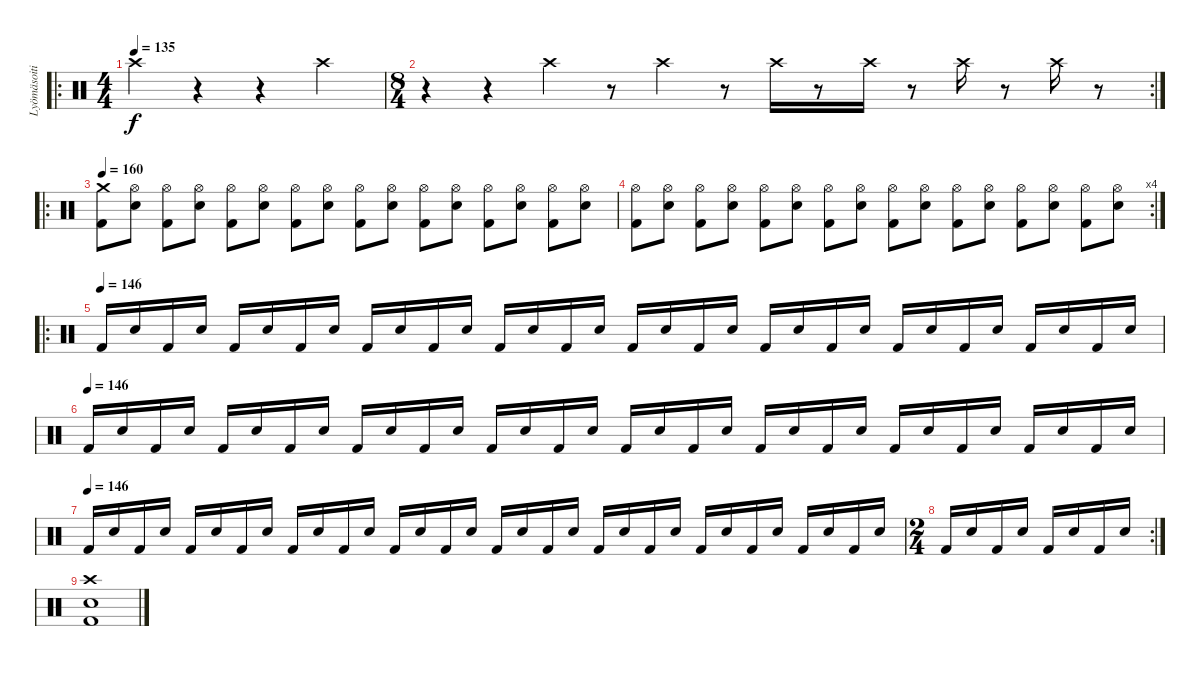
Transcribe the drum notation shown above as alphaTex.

\track ("Lyömäsoitin" "Lyömäsoiti") {instrument percussion}
\staff {score}
\articulation defaults
\ro
\ts (4 4)
\tempo 135
\clef neutral
\ks c "Crash high (hit)".4{dy f}
r.4 r.4 "Crash high (hit)".4 |
\rc 2
\ts (8 4)
r.4 r.4 "Crash high (hit)".4 r.8 "Crash high (hit)".4 r.8 "Crash high (hit)".16 r.8 "Crash high (hit)".16 r.8 "Crash high (hit)".16 r.8 "Crash high (hit)".16 r.8 |
\ro
\tempo 160
("Crash medium (hit)" "Kick (hit) 2").8 ("Hi-Hat (open)" "Snare (hit) 2").8 ("Hi-Hat (open)" "Kick (hit) 2").8 ("Hi-Hat (open)" "Snare (hit) 2").8 ("Hi-Hat (open)" "Kick (hit) 2").8 ("Hi-Hat (open)" "Snare (hit) 2").8 ("Hi-Hat (open)" "Kick (hit) 2").8 ("Hi-Hat (open)" "Snare (hit) 2").8 ("Hi-Hat (open)" "Kick (hit) 2").8 ("Hi-Hat (open)" "Snare (hit) 2").8 ("Hi-Hat (open)" "Kick (hit) 2").8 ("Hi-Hat (open)" "Snare (hit) 2").8 ("Hi-Hat (open)" "Kick (hit) 2").8 ("Hi-Hat (open)" "Snare (hit) 2").8 ("Hi-Hat (open)" "Kick (hit) 2").8 ("Hi-Hat (open)" "Snare (hit) 2").8 |
\rc 4
("Hi-Hat (open)" "Kick (hit) 2").8 ("Hi-Hat (open)" "Snare (hit) 2").8 ("Hi-Hat (open)" "Kick (hit) 2").8 ("Hi-Hat (open)" "Snare (hit) 2").8 ("Hi-Hat (open)" "Kick (hit) 2").8 ("Hi-Hat (open)" "Snare (hit) 2").8 ("Hi-Hat (open)" "Kick (hit) 2").8 ("Hi-Hat (open)" "Snare (hit) 2").8 ("Hi-Hat (open)" "Kick (hit) 2").8 ("Hi-Hat (open)" "Snare (hit) 2").8 ("Hi-Hat (open)" "Kick (hit) 2").8 ("Hi-Hat (open)" "Snare (hit) 2").8 ("Hi-Hat (open)" "Kick (hit) 2").8 ("Hi-Hat (open)" "Snare (hit) 2").8 ("Hi-Hat (open)" "Kick (hit) 2").8 ("Hi-Hat (open)" "Snare (hit) 2").8 |
\ro
\tempo (146)
"Kick (hit) 2".16 "Snare (hit) 2".16 "Kick (hit) 2".16 "Snare (hit) 2".16 "Kick (hit) 2".16 "Snare (hit) 2".16 "Kick (hit) 2".16 "Snare (hit) 2".16 "Kick (hit) 2".16 "Snare (hit) 2".16 "Kick (hit) 2".16 "Snare (hit) 2".16 "Kick (hit) 2".16 "Snare (hit) 2".16 "Kick (hit) 2".16 "Snare (hit) 2".16 "Kick (hit) 2".16 "Snare (hit) 2".16 "Kick (hit) 2".16 "Snare (hit) 2".16 "Kick (hit) 2".16 "Snare (hit) 2".16 "Kick (hit) 2".16 "Snare (hit) 2".16 "Kick (hit) 2".16 "Snare (hit) 2".16 "Kick (hit) 2".16 "Snare (hit) 2".16 "Kick (hit) 2".16 "Snare (hit) 2".16 "Kick (hit) 2".16 "Snare (hit) 2".16 |
\tempo (146)
"Kick (hit) 2".16 "Snare (hit) 2".16 "Kick (hit) 2".16 "Snare (hit) 2".16 "Kick (hit) 2".16 "Snare (hit) 2".16 "Kick (hit) 2".16 "Snare (hit) 2".16 "Kick (hit) 2".16 "Snare (hit) 2".16 "Kick (hit) 2".16 "Snare (hit) 2".16 "Kick (hit) 2".16 "Snare (hit) 2".16 "Kick (hit) 2".16 "Snare (hit) 2".16 "Kick (hit) 2".16 "Snare (hit) 2".16 "Kick (hit) 2".16 "Snare (hit) 2".16 "Kick (hit) 2".16 "Snare (hit) 2".16 "Kick (hit) 2".16 "Snare (hit) 2".16 "Kick (hit) 2".16 "Snare (hit) 2".16 "Kick (hit) 2".16 "Snare (hit) 2".16 "Kick (hit) 2".16 "Snare (hit) 2".16 "Kick (hit) 2".16 "Snare (hit) 2".16 |
\tempo (146)
"Kick (hit) 2".16 "Snare (hit) 2".16 "Kick (hit) 2".16 "Snare (hit) 2".16 "Kick (hit) 2".16 "Snare (hit) 2".16 "Kick (hit) 2".16 "Snare (hit) 2".16 "Kick (hit) 2".16 "Snare (hit) 2".16 "Kick (hit) 2".16 "Snare (hit) 2".16 "Kick (hit) 2".16 "Snare (hit) 2".16 "Kick (hit) 2".16 "Snare (hit) 2".16 "Kick (hit) 2".16 "Snare (hit) 2".16 "Kick (hit) 2".16 "Snare (hit) 2".16 "Kick (hit) 2".16 "Snare (hit) 2".16 "Kick (hit) 2".16 "Snare (hit) 2".16 "Kick (hit) 2".16 "Snare (hit) 2".16 "Kick (hit) 2".16 "Snare (hit) 2".16 "Kick (hit) 2".16 "Snare (hit) 2".16 "Kick (hit) 2".16 "Snare (hit) 2".16 |
\rc 2
\ts (2 4)
"Kick (hit) 2".16 "Snare (hit) 2".16 "Kick (hit) 2".16 "Snare (hit) 2".16 "Kick (hit) 2".16 "Snare (hit) 2".16 "Kick (hit) 2".16 "Snare (hit) 2".16 |
("Snare (hit) 2" "Kick (hit) 2" "Crash high (hit)").1
